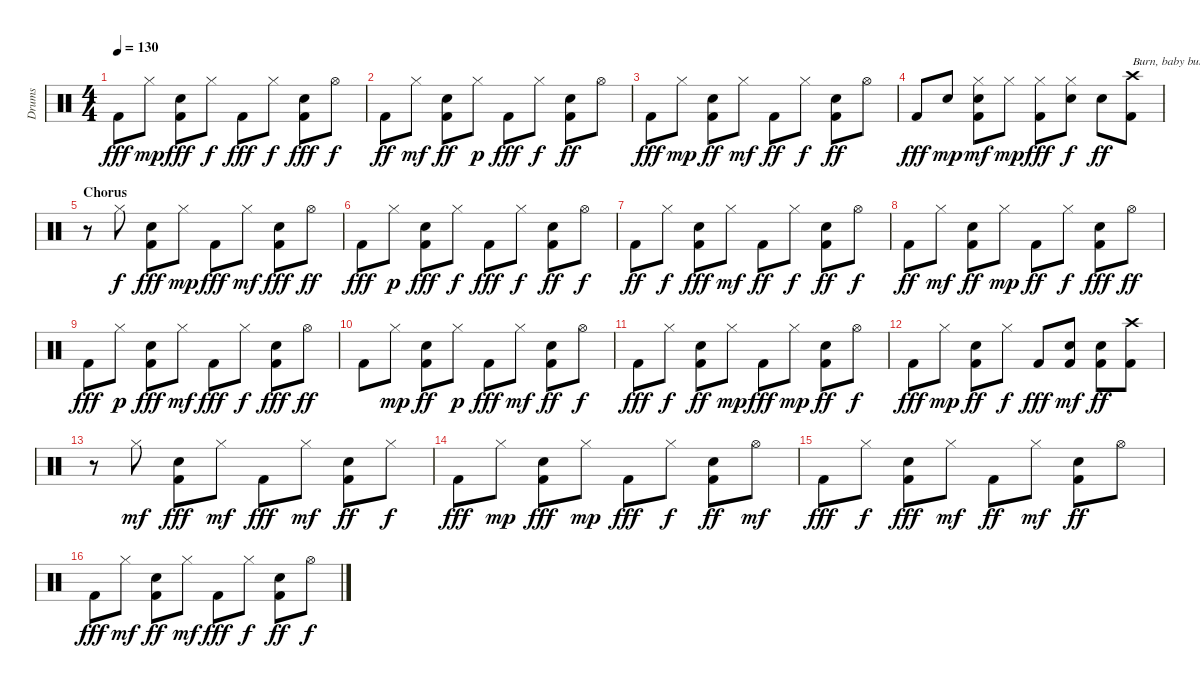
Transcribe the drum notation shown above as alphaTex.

\track ("Drums" "Drums") {instrument percussion}
\staff {score}
\articulation defaults
\ts (4 4)
\tempo 130
\clef neutral
\ks c "Kick (hit) 2".8{dy fff} "Hi-Hat (closed)".8{dy mp}
("Kick (hit) 2" "Snare (hit) 2").8{dy fff} "Hi-Hat (closed)".8{dy f} "Kick (hit) 2".8{dy fff} "Hi-Hat (closed)".8{dy f} ("Kick (hit) 2" "Snare (hit) 2").8{dy fff} "Hi-Hat (open)".8{dy f} |
"Kick (hit) 2".8{dy ff} "Hi-Hat (closed)".8{dy mf} ("Kick (hit) 2" "Snare (hit) 2").8{dy ff} "Hi-Hat (closed)".8{dy p} "Kick (hit) 2".8{dy fff} "Hi-Hat (closed)".8{dy f} ("Kick (hit) 2" "Snare (hit) 2").8{dy ff} "Hi-Hat (open)".8 |
"Kick (hit) 2".8{dy fff} "Hi-Hat (closed)".8{dy mp} ("Kick (hit) 2" "Snare (hit) 2").8{dy ff} "Hi-Hat (closed)".8{dy mf} "Kick (hit) 2".8{dy ff} "Hi-Hat (closed)".8{dy f} ("Kick (hit) 2" "Snare (hit) 2").8{dy ff} "Hi-Hat (open)".8 |
"Kick (hit) 2".8{dy fff} "Snare (hit) 2".8{dy mp} ("Kick (hit) 2" "Snare (hit) 2" "Hi-Hat (closed)").8{dy mf} "Hi-Hat (closed)".8{dy mp} ("Kick (hit) 2" "Hi-Hat (closed)").8{dy fff} ("Snare (hit) 2" "Hi-Hat (closed)").8{dy f} "Snare (hit) 2".8{dy ff} ("Kick (hit) 2" "Crash high (hit)").8{txt "Burn, baby burn!..."} |
\section ("" "Chorus")
r.8 "Hi-Hat (closed)".8{dy f} ("Kick (hit) 2" "Snare (hit) 2").8{dy fff} "Hi-Hat (closed)".8{dy mp} "Kick (hit) 2".8{dy fff} "Hi-Hat (closed)".8{dy mf} ("Kick (hit) 2" "Snare (hit) 2").8{dy fff} "Hi-Hat (open)".8{dy ff} |
"Kick (hit) 2".8{dy fff} "Hi-Hat (closed)".8{dy p} ("Kick (hit) 2" "Snare (hit) 2").8{dy fff} "Hi-Hat (closed)".8{dy f} "Kick (hit) 2".8{dy fff} "Hi-Hat (closed)".8{dy f} ("Kick (hit) 2" "Snare (hit) 2").8{dy ff} "Hi-Hat (open)".8{dy f} |
"Kick (hit) 2".8{dy ff} "Hi-Hat (closed)".8{dy f} ("Kick (hit) 2" "Snare (hit) 2").8{dy fff} "Hi-Hat (closed)".8{dy mf} "Kick (hit) 2".8{dy ff} "Hi-Hat (closed)".8{dy f} ("Kick (hit) 2" "Snare (hit) 2").8{dy ff} "Hi-Hat (open)".8{dy f} |
"Kick (hit) 2".8{dy ff} "Hi-Hat (closed)".8{dy mf} ("Kick (hit) 2" "Snare (hit) 2").8{dy ff} "Hi-Hat (closed)".8{dy mp} "Kick (hit) 2".8{dy ff} "Hi-Hat (closed)".8{dy f} ("Kick (hit) 2" "Snare (hit) 2").8{dy fff} "Hi-Hat (open)".8{dy ff} |
"Kick (hit) 2".8{dy fff} "Hi-Hat (closed)".8{dy p} ("Kick (hit) 2" "Snare (hit) 2").8{dy fff} "Hi-Hat (closed)".8{dy mf} "Kick (hit) 2".8{dy fff} "Hi-Hat (closed)".8{dy f} ("Kick (hit) 2" "Snare (hit) 2").8{dy fff} "Hi-Hat (open)".8{dy ff} |
"Kick (hit) 2".8 "Hi-Hat (closed)".8{dy mp} ("Kick (hit) 2" "Snare (hit) 2").8{dy ff} "Hi-Hat (closed)".8{dy p} "Kick (hit) 2".8{dy fff} "Hi-Hat (closed)".8{dy mf} ("Kick (hit) 2" "Snare (hit) 2").8{dy ff} "Hi-Hat (open)".8{dy f} |
"Kick (hit) 2".8{dy fff} "Hi-Hat (closed)".8{dy f} ("Kick (hit) 2" "Snare (hit) 2").8{dy ff} "Hi-Hat (closed)".8{dy mp} "Kick (hit) 2".8{dy fff} "Hi-Hat (closed)".8{dy mp} ("Kick (hit) 2" "Snare (hit) 2").8{dy ff} "Hi-Hat (open)".8{dy f} |
"Kick (hit) 2".8{dy fff} "Hi-Hat (closed)".8{dy mp} ("Kick (hit) 2" "Snare (hit) 2").8{dy ff} "Hi-Hat (closed)".8{dy f} "Kick (hit) 2".8{dy fff} ("Kick (hit) 2" "Snare (hit) 2").8{dy mf} ("Kick (hit) 2" "Snare (hit) 2").8{dy ff} ("Kick (hit) 2" "Crash high (hit)").8 |
r.8 "Hi-Hat (closed)".8{dy mf} ("Kick (hit) 2" "Snare (hit) 2").8{dy fff} "Hi-Hat (closed)".8{dy mf} "Kick (hit) 2".8{dy fff} "Hi-Hat (closed)".8{dy mf} ("Kick (hit) 2" "Snare (hit) 2").8{dy ff} "Hi-Hat (closed)".8{dy f} |
"Kick (hit) 2".8{dy fff} "Hi-Hat (closed)".8{dy mp} ("Kick (hit) 2" "Snare (hit) 2").8{dy fff} "Hi-Hat (closed)".8{dy mp} "Kick (hit) 2".8{dy fff} "Hi-Hat (closed)".8{dy f} ("Kick (hit) 2" "Snare (hit) 2").8{dy ff} "Hi-Hat (open)".8{dy mf} |
"Kick (hit) 2".8{dy fff} "Hi-Hat (closed)".8{dy f} ("Kick (hit) 2" "Snare (hit) 2").8{dy fff} "Hi-Hat (closed)".8{dy mf} "Kick (hit) 2".8{dy ff} "Hi-Hat (closed)".8{dy mf} ("Kick (hit) 2" "Snare (hit) 2").8{dy ff} "Hi-Hat (open)".8 |
"Kick (hit) 2".8{dy fff} "Hi-Hat (closed)".8{dy mf} ("Kick (hit) 2" "Snare (hit) 2").8{dy ff} "Hi-Hat (closed)".8{dy mf} "Kick (hit) 2".8{dy fff} "Hi-Hat (closed)".8{dy f} ("Kick (hit) 2" "Snare (hit) 2").8{dy ff} "Hi-Hat (open)".8{dy f}
